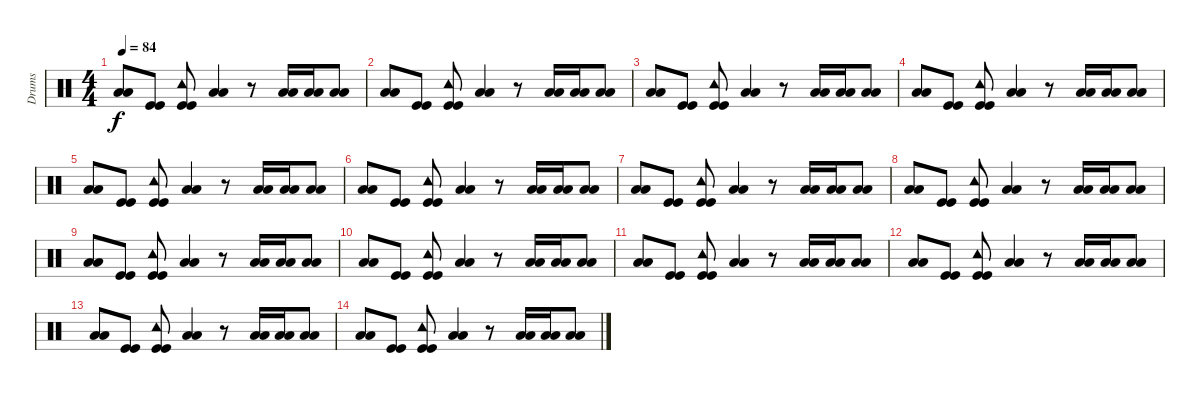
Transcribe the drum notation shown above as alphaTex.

\track ("Drums" "Drums") {instrument percussion}
\staff {score}
\articulation defaults
\ts (4 4)
\tempo 84
\clef neutral
\ks c
("Low Floor Tom (hit)" "Low Floor Tom (hit)").8{dy f} ("Kick (hit)" "Kick (hit)").8 ("Kick (hit)" "Kick (hit)" "Tambourine (hit)").8 ("Low Tom (hit)" "Low Tom (hit)").4 r.8 ("Low Tom (hit)" "Low Tom (hit)").16 ("Low Tom (hit)" "Low Tom (hit)").16 ("Low Floor Tom (hit)" "Low Floor Tom (hit)").8 |
("Low Floor Tom (hit)" "Low Floor Tom (hit)").8 ("Kick (hit)" "Kick (hit)").8 ("Kick (hit)" "Kick (hit)" "Tambourine (hit)").8 ("Low Tom (hit)" "Low Tom (hit)").4 r.8 ("Low Tom (hit)" "Low Tom (hit)").16 ("Low Tom (hit)" "Low Tom (hit)").16 ("Low Floor Tom (hit)" "Low Floor Tom (hit)").8 |
("Low Floor Tom (hit)" "Low Floor Tom (hit)").8 ("Kick (hit)" "Kick (hit)").8 ("Kick (hit)" "Kick (hit)" "Tambourine (hit)").8 ("Low Tom (hit)" "Low Tom (hit)").4 r.8 ("Low Tom (hit)" "Low Tom (hit)").16 ("Low Tom (hit)" "Low Tom (hit)").16 ("Low Floor Tom (hit)" "Low Floor Tom (hit)").8 |
("Low Floor Tom (hit)" "Low Floor Tom (hit)").8 ("Kick (hit)" "Kick (hit)").8 ("Kick (hit)" "Kick (hit)" "Tambourine (hit)").8 ("Low Tom (hit)" "Low Tom (hit)").4 r.8 ("Low Tom (hit)" "Low Tom (hit)").16 ("Low Tom (hit)" "Low Tom (hit)").16 ("Low Floor Tom (hit)" "Low Floor Tom (hit)").8 |
("Low Floor Tom (hit)" "Low Floor Tom (hit)").8 ("Kick (hit)" "Kick (hit)").8 ("Kick (hit)" "Kick (hit)" "Tambourine (hit)").8 ("Low Tom (hit)" "Low Tom (hit)").4 r.8 ("Low Tom (hit)" "Low Tom (hit)").16 ("Low Tom (hit)" "Low Tom (hit)").16 ("Low Floor Tom (hit)" "Low Floor Tom (hit)").8 |
("Low Floor Tom (hit)" "Low Floor Tom (hit)").8 ("Kick (hit)" "Kick (hit)").8 ("Kick (hit)" "Kick (hit)" "Tambourine (hit)").8 ("Low Tom (hit)" "Low Tom (hit)").4 r.8 ("Low Tom (hit)" "Low Tom (hit)").16 ("Low Tom (hit)" "Low Tom (hit)").16 ("Low Floor Tom (hit)" "Low Floor Tom (hit)").8 |
("Low Floor Tom (hit)" "Low Floor Tom (hit)").8 ("Kick (hit)" "Kick (hit)").8 ("Kick (hit)" "Kick (hit)" "Tambourine (hit)").8 ("Low Tom (hit)" "Low Tom (hit)").4 r.8 ("Low Tom (hit)" "Low Tom (hit)").16 ("Low Tom (hit)" "Low Tom (hit)").16 ("Low Floor Tom (hit)" "Low Floor Tom (hit)").8 |
("Low Floor Tom (hit)" "Low Floor Tom (hit)").8 ("Kick (hit)" "Kick (hit)").8 ("Kick (hit)" "Kick (hit)" "Tambourine (hit)").8 ("Low Tom (hit)" "Low Tom (hit)").4 r.8 ("Low Tom (hit)" "Low Tom (hit)").16 ("Low Tom (hit)" "Low Tom (hit)").16 ("Low Floor Tom (hit)" "Low Floor Tom (hit)").8 |
("Low Floor Tom (hit)" "Low Floor Tom (hit)").8 ("Kick (hit)" "Kick (hit)").8 ("Kick (hit)" "Kick (hit)" "Tambourine (hit)").8 ("Low Tom (hit)" "Low Tom (hit)").4 r.8 ("Low Tom (hit)" "Low Tom (hit)").16 ("Low Tom (hit)" "Low Tom (hit)").16 ("Low Floor Tom (hit)" "Low Floor Tom (hit)").8 |
("Low Floor Tom (hit)" "Low Floor Tom (hit)").8 ("Kick (hit)" "Kick (hit)").8 ("Kick (hit)" "Kick (hit)" "Tambourine (hit)").8 ("Low Tom (hit)" "Low Tom (hit)").4 r.8 ("Low Tom (hit)" "Low Tom (hit)").16 ("Low Tom (hit)" "Low Tom (hit)").16 ("Low Floor Tom (hit)" "Low Floor Tom (hit)").8 |
("Low Floor Tom (hit)" "Low Floor Tom (hit)").8 ("Kick (hit)" "Kick (hit)").8 ("Kick (hit)" "Kick (hit)" "Tambourine (hit)").8 ("Low Tom (hit)" "Low Tom (hit)").4 r.8 ("Low Tom (hit)" "Low Tom (hit)").16 ("Low Tom (hit)" "Low Tom (hit)").16 ("Low Floor Tom (hit)" "Low Floor Tom (hit)").8 |
("Low Floor Tom (hit)" "Low Floor Tom (hit)").8 ("Kick (hit)" "Kick (hit)").8 ("Kick (hit)" "Kick (hit)" "Tambourine (hit)").8 ("Low Tom (hit)" "Low Tom (hit)").4 r.8 ("Low Tom (hit)" "Low Tom (hit)").16 ("Low Tom (hit)" "Low Tom (hit)").16 ("Low Floor Tom (hit)" "Low Floor Tom (hit)").8 |
("Low Floor Tom (hit)" "Low Floor Tom (hit)").8 ("Kick (hit)" "Kick (hit)").8 ("Kick (hit)" "Kick (hit)" "Tambourine (hit)").8 ("Low Tom (hit)" "Low Tom (hit)").4 r.8 ("Low Tom (hit)" "Low Tom (hit)").16 ("Low Tom (hit)" "Low Tom (hit)").16 ("Low Floor Tom (hit)" "Low Floor Tom (hit)").8 |
("Low Floor Tom (hit)" "Low Floor Tom (hit)").8 ("Kick (hit)" "Kick (hit)").8 ("Kick (hit)" "Kick (hit)" "Tambourine (hit)").8 ("Low Tom (hit)" "Low Tom (hit)").4 r.8 ("Low Tom (hit)" "Low Tom (hit)").16 ("Low Tom (hit)" "Low Tom (hit)").16 ("Low Floor Tom (hit)" "Low Floor Tom (hit)").8
